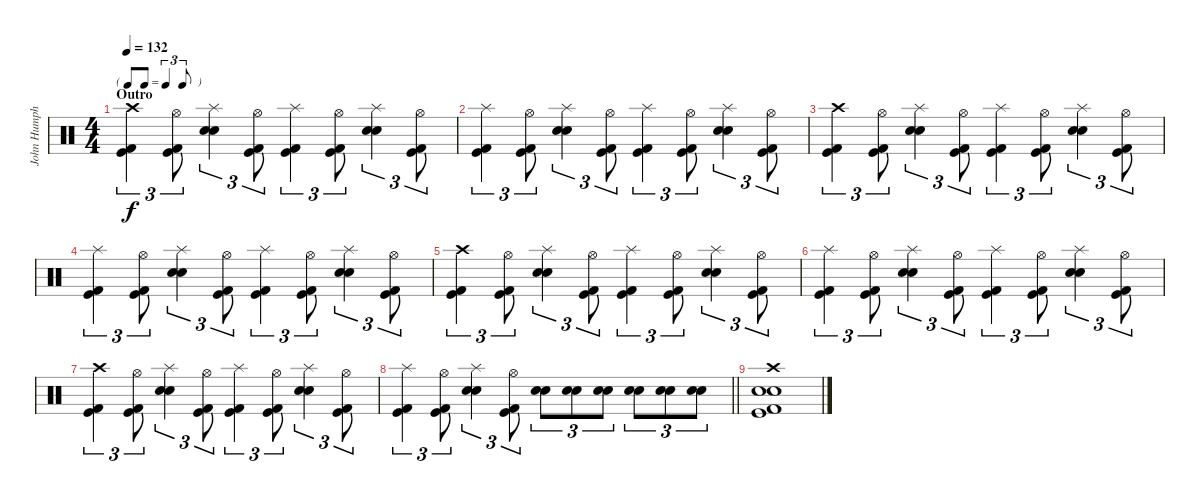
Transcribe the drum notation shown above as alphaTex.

\track ("John Humphrey" "John Humph") {instrument percussion}
\staff {score}
\articulation defaults
\ts (4 4)
\tf triplet8th
\section ("" "Outro")
\tempo 132
\clef neutral
\ks c
("Crash high (hit)" "Kick (hit) 2" "Kick (hit)").4{tu (3 2) dy f} ("Hi-Hat (open)" "Kick (hit) 2" "Kick (hit)").8{tu (3 2)} ("Splash (hit)" "Electric Snare (hit)" "Snare (hit) 2").4{tu (3 2)} ("Hi-Hat (open)" "Kick (hit) 2" "Kick (hit)").8{tu (3 2)} ("Splash (hit)" "Kick (hit) 2" "Kick (hit)").4{tu (3 2)} ("Hi-Hat (open)" "Kick (hit) 2" "Kick (hit)").8{tu (3 2)} ("Splash (hit)" "Electric Snare (hit)" "Snare (hit) 2").4{tu (3 2)} ("Hi-Hat (open)" "Kick (hit) 2" "Kick (hit)").8{tu (3 2)} |
("Splash (hit)" "Kick (hit) 2" "Kick (hit)").4{tu (3 2)} ("Hi-Hat (open)" "Kick (hit) 2" "Kick (hit)").8{tu (3 2)} ("Splash (hit)" "Electric Snare (hit)" "Snare (hit) 2").4{tu (3 2)} ("Hi-Hat (open)" "Kick (hit) 2" "Kick (hit)").8{tu (3 2)} ("Splash (hit)" "Kick (hit) 2" "Kick (hit)").4{tu (3 2)} ("Hi-Hat (open)" "Kick (hit) 2" "Kick (hit)").8{tu (3 2)} ("Splash (hit)" "Electric Snare (hit)" "Snare (hit) 2").4{tu (3 2)} ("Hi-Hat (open)" "Kick (hit) 2" "Kick (hit)").8{tu (3 2)} |
("Crash high (hit)" "Kick (hit) 2" "Kick (hit)").4{tu (3 2)} ("Hi-Hat (open)" "Kick (hit) 2" "Kick (hit)").8{tu (3 2)} ("Splash (hit)" "Electric Snare (hit)" "Snare (hit) 2").4{tu (3 2)} ("Hi-Hat (open)" "Kick (hit) 2" "Kick (hit)").8{tu (3 2)} ("Splash (hit)" "Kick (hit) 2" "Kick (hit)").4{tu (3 2)} ("Hi-Hat (open)" "Kick (hit) 2" "Kick (hit)").8{tu (3 2)} ("Splash (hit)" "Electric Snare (hit)" "Snare (hit) 2").4{tu (3 2)} ("Hi-Hat (open)" "Kick (hit) 2" "Kick (hit)").8{tu (3 2)} |
("Splash (hit)" "Kick (hit) 2" "Kick (hit)").4{tu (3 2)} ("Hi-Hat (open)" "Kick (hit) 2" "Kick (hit)").8{tu (3 2)} ("Splash (hit)" "Electric Snare (hit)" "Snare (hit) 2").4{tu (3 2)} ("Hi-Hat (open)" "Kick (hit) 2" "Kick (hit)").8{tu (3 2)} ("Splash (hit)" "Kick (hit) 2" "Kick (hit)").4{tu (3 2)} ("Hi-Hat (open)" "Kick (hit) 2" "Kick (hit)").8{tu (3 2)} ("Splash (hit)" "Electric Snare (hit)" "Snare (hit) 2").4{tu (3 2)} ("Hi-Hat (open)" "Kick (hit) 2" "Kick (hit)").8{tu (3 2)} |
("Crash high (hit)" "Kick (hit) 2" "Kick (hit)").4{tu (3 2)} ("Hi-Hat (open)" "Kick (hit) 2" "Kick (hit)").8{tu (3 2)} ("Splash (hit)" "Electric Snare (hit)" "Snare (hit) 2").4{tu (3 2)} ("Hi-Hat (open)" "Kick (hit) 2" "Kick (hit)").8{tu (3 2)} ("Splash (hit)" "Kick (hit) 2" "Kick (hit)").4{tu (3 2)} ("Hi-Hat (open)" "Kick (hit) 2" "Kick (hit)").8{tu (3 2)} ("Splash (hit)" "Electric Snare (hit)" "Snare (hit) 2").4{tu (3 2)} ("Hi-Hat (open)" "Kick (hit) 2" "Kick (hit)").8{tu (3 2)} |
("Splash (hit)" "Kick (hit) 2" "Kick (hit)").4{tu (3 2)} ("Hi-Hat (open)" "Kick (hit) 2" "Kick (hit)").8{tu (3 2)} ("Splash (hit)" "Electric Snare (hit)" "Snare (hit) 2").4{tu (3 2)} ("Hi-Hat (open)" "Kick (hit) 2" "Kick (hit)").8{tu (3 2)} ("Splash (hit)" "Kick (hit) 2" "Kick (hit)").4{tu (3 2)} ("Hi-Hat (open)" "Kick (hit) 2" "Kick (hit)").8{tu (3 2)} ("Splash (hit)" "Electric Snare (hit)" "Snare (hit) 2").4{tu (3 2)} ("Hi-Hat (open)" "Kick (hit) 2" "Kick (hit)").8{tu (3 2)} |
("Crash high (hit)" "Kick (hit) 2" "Kick (hit)").4{tu (3 2)} ("Hi-Hat (open)" "Kick (hit) 2" "Kick (hit)").8{tu (3 2)} ("Splash (hit)" "Electric Snare (hit)" "Snare (hit) 2").4{tu (3 2)} ("Hi-Hat (open)" "Kick (hit) 2" "Kick (hit)").8{tu (3 2)} ("Splash (hit)" "Kick (hit) 2" "Kick (hit)").4{tu (3 2)} ("Hi-Hat (open)" "Kick (hit) 2" "Kick (hit)").8{tu (3 2)} ("Splash (hit)" "Electric Snare (hit)" "Snare (hit) 2").4{tu (3 2)} ("Hi-Hat (open)" "Kick (hit) 2" "Kick (hit)").8{tu (3 2)} |
\barLineRight lightlight
("Splash (hit)" "Kick (hit) 2" "Kick (hit)").4{tu (3 2)} ("Hi-Hat (open)" "Kick (hit) 2" "Kick (hit)").8{tu (3 2)} ("Splash (hit)" "Electric Snare (hit)" "Snare (hit) 2").4{tu (3 2)} ("Hi-Hat (open)" "Kick (hit) 2" "Kick (hit)").8{tu (3 2)} ("Electric Snare (hit)" "Snare (hit) 2").8{tu (3 2)} ("Electric Snare (hit)" "Snare (hit) 2").8{tu (3 2)} ("Electric Snare (hit)" "Snare (hit) 2").8{tu (3 2)} ("Electric Snare (hit)" "Snare (hit) 2").8{tu (3 2)} ("Electric Snare (hit)" "Snare (hit) 2").8{tu (3 2)} ("Electric Snare (hit)" "Snare (hit) 2").8{tu (3 2)} |
("Crash high (hit)" "Electric Snare (hit)" "Snare (hit) 2" "Kick (hit) 2" "Kick (hit)").1
